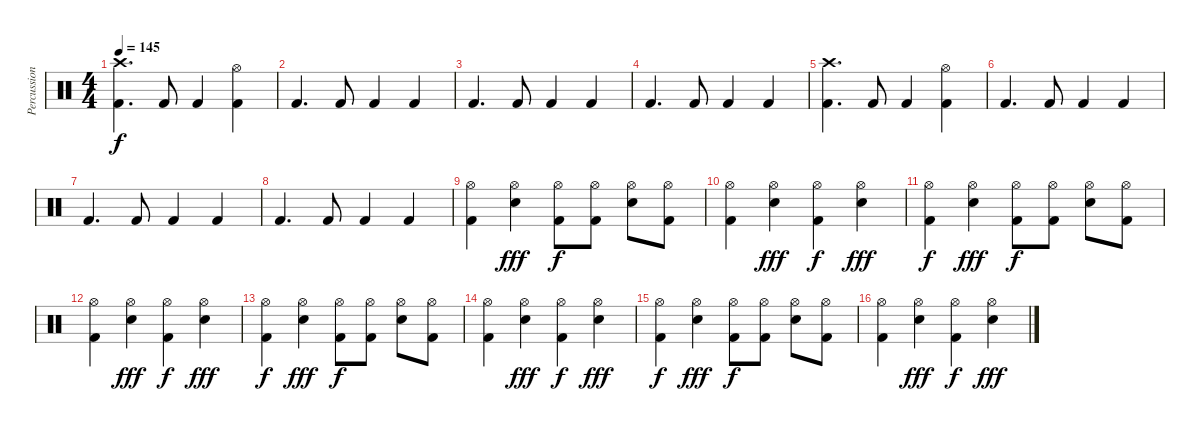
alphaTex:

\track ("Percussion" "Percussion") {instrument percussion}
\staff {score}
\articulation defaults
\ts (4 4)
\tempo 145
\clef neutral
\ks c
("Crash high (hit)" "Kick (hit) 2").4{d dy f} "Kick (hit) 2".8 "Kick (hit) 2".4 ("Hi-Hat (open)" "Kick (hit) 2").4 |
"Kick (hit) 2".4{d} "Kick (hit) 2".8 "Kick (hit) 2".4 "Kick (hit) 2".4 |
"Kick (hit) 2".4{d} "Kick (hit) 2".8 "Kick (hit) 2".4 "Kick (hit) 2".4 |
"Kick (hit) 2".4{d} "Kick (hit) 2".8 "Kick (hit) 2".4 "Kick (hit) 2".4 |
("Crash high (hit)" "Kick (hit) 2").4{d} "Kick (hit) 2".8 "Kick (hit) 2".4 ("Hi-Hat (open)" "Kick (hit) 2").4 |
"Kick (hit) 2".4{d} "Kick (hit) 2".8 "Kick (hit) 2".4 "Kick (hit) 2".4 |
"Kick (hit) 2".4{d} "Kick (hit) 2".8 "Kick (hit) 2".4 "Kick (hit) 2".4 |
"Kick (hit) 2".4{d} "Kick (hit) 2".8 "Kick (hit) 2".4 "Kick (hit) 2".4 |
("Hi-Hat (open)" "Kick (hit) 2").4 ("Hi-Hat (open)" "Snare (hit) 2").4{dy fff} ("Hi-Hat (open)" "Kick (hit) 2").8{dy f} ("Hi-Hat (open)" "Kick (hit) 2").8 ("Hi-Hat (open)" "Snare (hit) 2").8 ("Hi-Hat (open)" "Kick (hit) 2").8 |
("Hi-Hat (open)" "Kick (hit) 2").4 ("Hi-Hat (open)" "Snare (hit) 2").4{dy fff} ("Hi-Hat (open)" "Kick (hit) 2").4{dy f} ("Hi-Hat (open)" "Snare (hit) 2").4{dy fff} |
("Hi-Hat (open)" "Kick (hit) 2").4{dy f} ("Hi-Hat (open)" "Snare (hit) 2").4{dy fff} ("Hi-Hat (open)" "Kick (hit) 2").8{dy f} ("Hi-Hat (open)" "Kick (hit) 2").8 ("Hi-Hat (open)" "Snare (hit) 2").8 ("Hi-Hat (open)" "Kick (hit) 2").8 |
("Hi-Hat (open)" "Kick (hit) 2").4 ("Hi-Hat (open)" "Snare (hit) 2").4{dy fff} ("Hi-Hat (open)" "Kick (hit) 2").4{dy f} ("Hi-Hat (open)" "Snare (hit) 2").4{dy fff} |
("Hi-Hat (open)" "Kick (hit) 2").4{dy f} ("Hi-Hat (open)" "Snare (hit) 2").4{dy fff} ("Hi-Hat (open)" "Kick (hit) 2").8{dy f} ("Hi-Hat (open)" "Kick (hit) 2").8 ("Hi-Hat (open)" "Snare (hit) 2").8 ("Hi-Hat (open)" "Kick (hit) 2").8 |
("Hi-Hat (open)" "Kick (hit) 2").4 ("Hi-Hat (open)" "Snare (hit) 2").4{dy fff} ("Hi-Hat (open)" "Kick (hit) 2").4{dy f} ("Hi-Hat (open)" "Snare (hit) 2").4{dy fff} |
("Hi-Hat (open)" "Kick (hit) 2").4{dy f} ("Hi-Hat (open)" "Snare (hit) 2").4{dy fff} ("Hi-Hat (open)" "Kick (hit) 2").8{dy f} ("Hi-Hat (open)" "Kick (hit) 2").8 ("Hi-Hat (open)" "Snare (hit) 2").8 ("Hi-Hat (open)" "Kick (hit) 2").8 |
("Hi-Hat (open)" "Kick (hit) 2").4 ("Hi-Hat (open)" "Snare (hit) 2").4{dy fff} ("Hi-Hat (open)" "Kick (hit) 2").4{dy f} ("Hi-Hat (open)" "Snare (hit) 2").4{dy fff}
